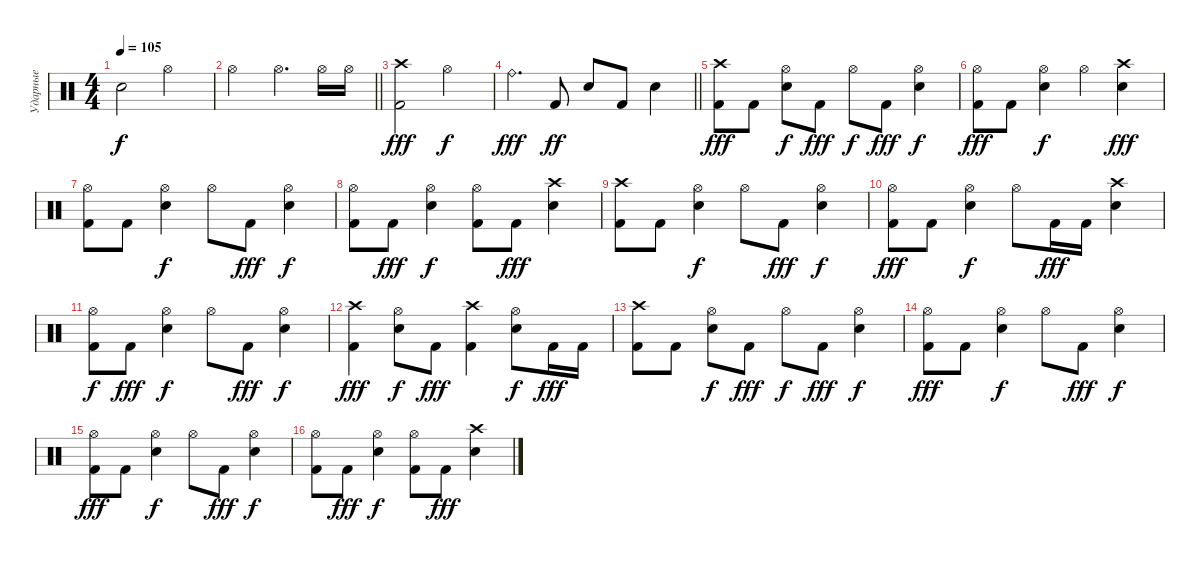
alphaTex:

\track ("Ударные" "Ударные") {instrument percussion}
\staff {score}
\articulation defaults
\ts (4 4)
\tempo 105
\clef neutral
\ks c "Snare (hit)"{t}.2{dy f} "Hi-Hat (open)".2
|
\barLineRight lightlight "Hi-Hat (open)".2 "Hi-Hat (open)".4{d} "Hi-Hat (open)".16 "Hi-Hat (open)".16
|
("Kick (hit) 2" "Crash high (hit)").2{dy fff} "Hi-Hat (open)".2{dy f} |
\barLineRight lightlight "Ride (bell)".4{d dy fff} "Kick (hit) 2".8{dy ff} "Snare (hit) 2".8 "Kick (hit) 2".8 "Snare (hit) 2".4
|
("Kick (hit) 2" "Crash high (hit)").8{dy fff} "Kick (hit) 2".8 ("Snare (hit) 2" "Hi-Hat (open)").8{dy f} "Kick (hit) 2".8{dy fff} "Hi-Hat (open)".8{dy f} "Kick (hit) 2".8{dy fff} ("Snare (hit) 2" "Hi-Hat (open)").4{dy f} |
("Kick (hit) 2" "Hi-Hat (open)").8{dy fff} "Kick (hit) 2".8 ("Snare (hit) 2" "Hi-Hat (open)").4{dy f} "Hi-Hat (open)".4 ("Snare (hit) 2" "Crash high (hit)").4{dy fff} |
("Kick (hit) 2" "Hi-Hat (open)").8 "Kick (hit) 2".8 ("Snare (hit) 2" "Hi-Hat (open)").4{dy f} "Hi-Hat (open)".8 "Kick (hit) 2".8{dy fff} ("Snare (hit) 2" "Hi-Hat (open)").4{dy f} |
("Kick (hit) 2" "Hi-Hat (open)").8 "Kick (hit) 2".8{dy fff} ("Snare (hit) 2" "Hi-Hat (open)").4{dy f} ("Kick (hit) 2" "Hi-Hat (open)").8 "Kick (hit) 2".8{dy fff} ("Snare (hit) 2" "Crash high (hit)").4 |
("Kick (hit) 2" "Crash high (hit)").8 "Kick (hit) 2".8 ("Snare (hit) 2" "Hi-Hat (open)").4{dy f} "Hi-Hat (open)".8 "Kick (hit) 2".8{dy fff} ("Snare (hit) 2" "Hi-Hat (open)").4{dy f} |
("Kick (hit) 2" "Hi-Hat (open)").8{dy fff} "Kick (hit) 2".8 ("Snare (hit) 2" "Hi-Hat (open)").4{dy f} "Hi-Hat (open)".8 "Kick (hit) 2".16{dy fff} "Kick (hit) 2".16 ("Snare (hit) 2" "Crash high (hit)").4 |
("Kick (hit) 2" "Hi-Hat (open)").8{dy f} "Kick (hit) 2".8{dy fff} ("Snare (hit) 2" "Hi-Hat (open)").4{dy f} "Hi-Hat (open)".8 "Kick (hit) 2".8{dy fff} ("Snare (hit) 2" "Hi-Hat (open)").4{dy f} |
("Kick (hit) 2" "Crash high (hit)").4{dy fff} ("Snare (hit) 2" "Hi-Hat (open)").8{dy f} "Kick (hit) 2".8{dy fff} ("Kick (hit) 2" "Crash high (hit)").4 ("Snare (hit) 2" "Hi-Hat (open)").8{dy f} "Kick (hit) 2".16{dy fff} "Kick (hit) 2".16 |
("Kick (hit) 2" "Crash high (hit)").8 "Kick (hit) 2".8 ("Snare (hit) 2" "Hi-Hat (open)").8{dy f} "Kick (hit) 2".8{dy fff} "Hi-Hat (open)".8{dy f} "Kick (hit) 2".8{dy fff} ("Snare (hit) 2" "Hi-Hat (open)").4{dy f} |
("Kick (hit) 2" "Hi-Hat (open)").8{dy fff} "Kick (hit) 2".8 ("Snare (hit) 2" "Hi-Hat (open)").4{dy f} "Hi-Hat (open)".8 "Kick (hit) 2".8{dy fff} ("Snare (hit) 2" "Hi-Hat (open)").4{dy f} |
("Kick (hit) 2" "Hi-Hat (open)").8{dy fff} "Kick (hit) 2".8 ("Snare (hit) 2" "Hi-Hat (open)").4{dy f} "Hi-Hat (open)".8 "Kick (hit) 2".8{dy fff} ("Snare (hit) 2" "Hi-Hat (open)").4{dy f} |
("Kick (hit) 2" "Hi-Hat (open)").8 "Kick (hit) 2".8{dy fff} ("Snare (hit) 2" "Hi-Hat (open)").4{dy f} ("Kick (hit) 2" "Hi-Hat (open)").8 "Kick (hit) 2".8{dy fff} ("Snare (hit) 2" "Crash high (hit)").4
